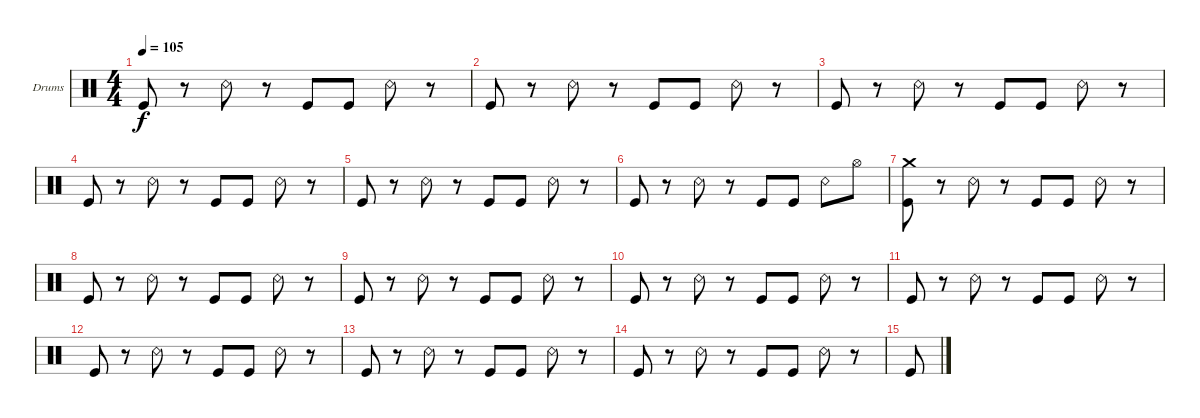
\defaultSystemsLayout 4
\bracketExtendMode groupsimilarinstruments
\firstSystemTrackNameOrientation horizontal
\otherSystemsTrackNameOrientation horizontal
\track ("Drumkit" "Drums") {instrument percussion}
\staff {score}
\articulation defaults
\ts (4 4)
\tempo 105
\clef neutral
\ks c "Kick (hit)".8{dy f}
r.8 "Snare (rim shot)".8 r.8 "Kick (hit)".8 "Kick (hit)".8 "Snare (rim shot)".8 r.8 |
"Kick (hit)".8 r.8 "Snare (rim shot)".8 r.8 "Kick (hit)".8 "Kick (hit)".8 "Snare (rim shot)".8 r.8 |
"Kick (hit)".8 r.8 "Snare (rim shot)".8 r.8 "Kick (hit)".8 "Kick (hit)".8 "Snare (rim shot)".8 r.8 |
"Kick (hit)".8 r.8 "Snare (rim shot)".8 r.8 "Kick (hit)".8 "Kick (hit)".8 "Snare (rim shot)".8 r.8 |
"Kick (hit)".8 r.8 "Snare (rim shot)".8 r.8 "Kick (hit)".8 "Kick (hit)".8 "Snare (rim shot)".8 r.8 |
"Kick (hit)".8 r.8 "Snare (rim shot)".8 r.8 "Kick (hit)".8 "Kick (hit)".8 "Snare (rim shot)".8 "Hi-Hat (open)".8 |
("Kick (hit)" "Crash medium (hit)").8 r.8 "Snare (rim shot)".8 r.8 "Kick (hit)".8 "Kick (hit)".8 "Snare (rim shot)".8 r.8 |
"Kick (hit)".8 r.8 "Snare (rim shot)".8 r.8 "Kick (hit)".8 "Kick (hit)".8 "Snare (rim shot)".8 r.8 |
"Kick (hit)".8 r.8 "Snare (rim shot)".8 r.8 "Kick (hit)".8 "Kick (hit)".8 "Snare (rim shot)".8 r.8 |
"Kick (hit)".8 r.8 "Snare (rim shot)".8 r.8 "Kick (hit)".8 "Kick (hit)".8 "Snare (rim shot)".8 r.8 |
"Kick (hit)".8 r.8 "Snare (rim shot)".8 r.8 "Kick (hit)".8 "Kick (hit)".8 "Snare (rim shot)".8 r.8 |
"Kick (hit)".8 r.8 "Snare (rim shot)".8 r.8 "Kick (hit)".8 "Kick (hit)".8 "Snare (rim shot)".8 r.8 |
"Kick (hit)".8 r.8 "Snare (rim shot)".8 r.8 "Kick (hit)".8 "Kick (hit)".8 "Snare (rim shot)".8 r.8 |
"Kick (hit)".8 r.8 "Snare (rim shot)".8 r.8 "Kick (hit)".8 "Kick (hit)".8 "Snare (rim shot)".8 r.8 |
"Kick (hit)".8
